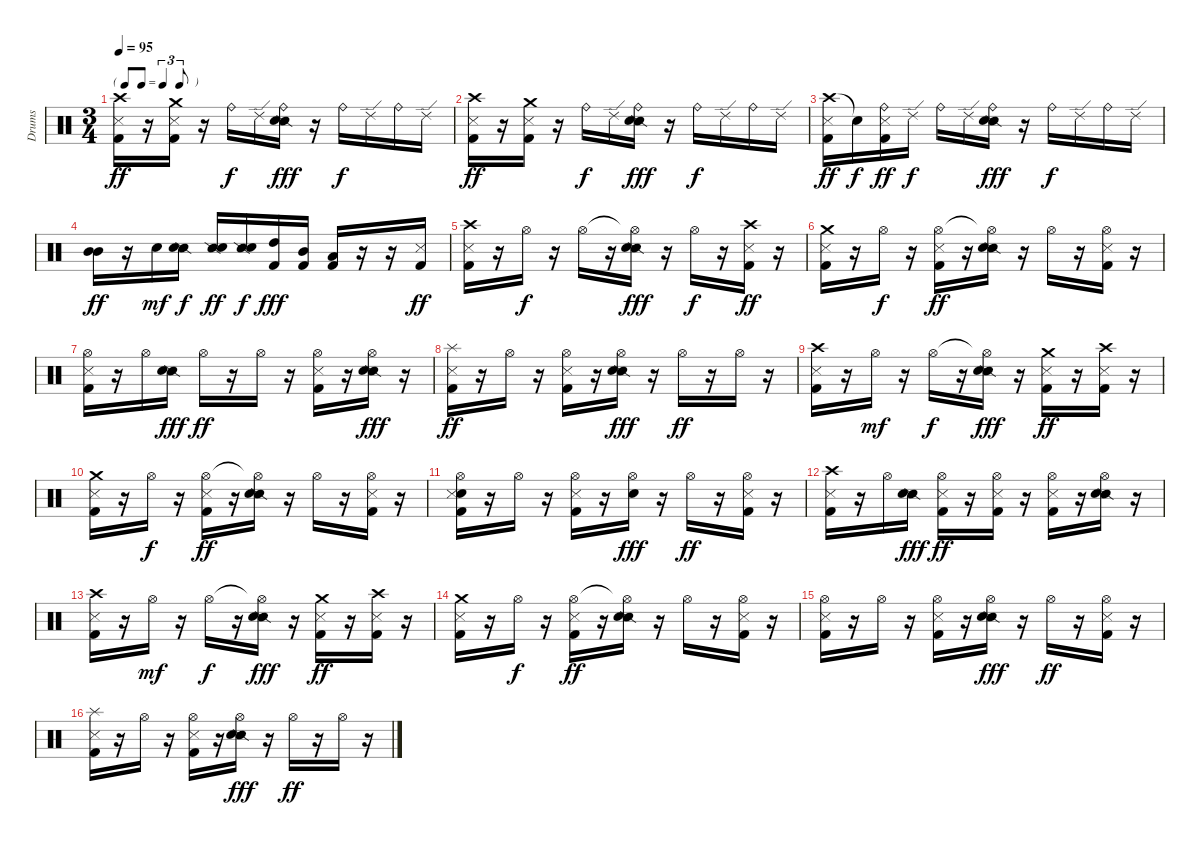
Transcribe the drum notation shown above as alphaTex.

\track ("Drums" "Drums") {instrument percussion}
\staff {score}
\articulation defaults
\ts (3 4)
\tf triplet8th
\tempo 95
\clef neutral
\ks c
("Crash high (hit)" "Metronome (hit)" "Kick (hit) 2").16{dy ff} r.16 ("Crash medium (hit)" "Metronome (hit)" "Kick (hit) 2").16 r.16 "Ride (bell)".16{dy f} "Ride (edge) 2".16 ("Ride (bell)" "Snare (side stick) 2" "Electric Snare (hit)").16{dy fff} r.16 "Ride (bell)".16{dy f} "Ride (edge) 2".16 "Ride (bell)".16 "Ride (edge) 2".16 |
("Crash high (hit)" "Metronome (hit)" "Kick (hit) 2").16{dy ff} r.16 ("Crash medium (hit)" "Metronome (hit)" "Kick (hit) 2").16 r.16 "Ride (bell)".16{dy f} "Ride (edge) 2".16 ("Ride (bell)" "Snare (side stick) 2" "Electric Snare (hit)").16{dy fff} r.16 "Ride (bell)".16{dy f} "Ride (edge) 2".16 "Ride (bell)".16 "Ride (edge) 2".16 |
("Crash high (hit)" "Metronome (hit)" "Kick (hit) 2").16{dy ff} "Snare (hit)"{t}.16{dy f} ("Ride (bell)" "Metronome (hit)" "Kick (hit) 2").16{dy ff} "Ride (edge) 2".16{dy f} "Ride (bell)".16 "Ride (edge) 2".16 ("Ride (bell)" "Snare (side stick) 2" "Electric Snare (hit)").16{dy fff} r.16 "Ride (bell)".16{dy f} "Ride (edge) 2".16 "Ride (bell)".16 "Ride (edge) 2".16 |
("Mid Tom (hit)" "Mid Tom (hit)").16{dy ff} r.16 "Electric Snare (hit)".16{dy mf} ("Snare (side stick) 2" "Electric Snare (hit)").16{dy f} ("Snare (side stick) 2" "Electric Snare (hit)").16{dy ff} ("Snare (side stick) 2" "Electric Snare (hit)").16{dy f} ("High Tom (hit)" "Kick (hit) 2").16{dy fff} ("Mid Tom (hit)" "Kick (hit) 2").16 ("Low Tom (hit)" "Kick (hit) 2").16 r.16 r.16 ("Metronome (hit)" "Kick (hit) 2").16{dy ff} |
("Crash high (hit)" "Metronome (hit)" "Kick (hit) 2").16 r.16 "Hi-Hat (open)".16{dy f} r.16 "Hi-Hat (open)".16 r.16 ("Hi-Hat (open)"{t} "Snare (side stick) 2" "Electric Snare (hit)").16{dy fff} r.16 "Hi-Hat (open)".16{dy f} r.16 ("Crash high (hit)" "Metronome (hit)" "Kick (hit) 2").16{dy ff} r.16 |
("Crash medium (hit)" "Metronome (hit)" "Kick (hit) 2").16 r.16 "Hi-Hat (open)".16{dy f} r.16 ("Hi-Hat (open)" "Metronome (hit)" "Kick (hit) 2").16{dy ff} r.16 ("Hi-Hat (open)"{t} "Snare (side stick) 2" "Electric Snare (hit)").16 r.16 "Hi-Hat (open)".16 r.16 ("Hi-Hat (open)" "Metronome (hit)" "Kick (hit) 2").16 r.16 |
("Hi-Hat (open)" "Metronome (hit)" "Kick (hit) 2").16 r.16 "Hi-Hat (open)".16 ("Snare (side stick) 2" "Electric Snare (hit)").16{dy fff} "Hi-Hat (open)".16{dy ff} r.16 "Hi-Hat (open)".16 r.16 ("Hi-Hat (open)" "Metronome (hit)" "Kick (hit) 2").16 r.16 ("Hi-Hat (open)" "Snare (side stick) 2" "Electric Snare (hit)").16{dy fff} r.16 |
("Splash (hit)" "Metronome (hit)" "Kick (hit) 2").16{dy ff} r.16 "Hi-Hat (open)".16 r.16 ("Hi-Hat (open)" "Metronome (hit)" "Kick (hit) 2").16 r.16 ("Hi-Hat (open)" "Snare (side stick) 2" "Electric Snare (hit)").16{dy fff} r.16 "Hi-Hat (open)".16{dy ff} r.16 "Hi-Hat (open)".16 r.16 |
("Crash high (hit)" "Metronome (hit)" "Kick (hit) 2").16 r.16 "Hi-Hat (open)".16{dy mf} r.16 "Hi-Hat (open)".16{dy f} r.16 ("Hi-Hat (open)"{t} "Snare (side stick) 2" "Electric Snare (hit)").16{dy fff} r.16 ("Crash medium (hit)" "Metronome (hit)" "Kick (hit) 2").16{dy ff} r.16 ("Crash high (hit)" "Metronome (hit)" "Kick (hit) 2").16 r.16 |
("Crash medium (hit)" "Metronome (hit)" "Kick (hit) 2").16 r.16 "Hi-Hat (open)".16{dy f} r.16 ("Hi-Hat (open)" "Metronome (hit)" "Kick (hit) 2").16{dy ff} r.16 ("Hi-Hat (open)"{t} "Snare (side stick) 2" "Electric Snare (hit)").16 r.16 "Hi-Hat (open)".16 r.16 ("Hi-Hat (open)" "Metronome (hit)" "Kick (hit) 2").16 r.16 |
("Hi-Hat (open)" "Electric Snare (hit)" "Metronome (hit)" "Kick (hit) 2").16 r.16 "Hi-Hat (open)".16 r.16 ("Hi-Hat (open)" "Metronome (hit)" "Kick (hit) 2").16 r.16 ("Hi-Hat (open)" "Electric Snare (hit)").16{dy fff} r.16 "Hi-Hat (open)".16{dy ff} r.16 ("Hi-Hat (open)" "Metronome (hit)" "Kick (hit) 2").16 r.16 |
("Crash high (hit)" "Metronome (hit)" "Kick (hit) 2").16 r.16 "Hi-Hat (open)".16 ("Snare (side stick) 2" "Electric Snare (hit)").16{dy fff} ("Hi-Hat (open)" "Metronome (hit)" "Kick (hit) 2").16{dy ff} r.16 ("Hi-Hat (open)" "Metronome (hit)" "Kick (hit) 2").16 r.16 ("Hi-Hat (open)" "Metronome (hit)" "Kick (hit) 2").16 r.16 ("Hi-Hat (open)" "Snare (side stick) 2" "Electric Snare (hit)").16 r.16 |
("Crash high (hit)" "Metronome (hit)" "Kick (hit) 2").16 r.16 "Hi-Hat (open)".16{dy mf} r.16 "Hi-Hat (open)".16{dy f} r.16 ("Hi-Hat (open)"{t} "Snare (side stick) 2" "Electric Snare (hit)").16{dy fff} r.16 ("Crash medium (hit)" "Metronome (hit)" "Kick (hit) 2").16{dy ff} r.16 ("Crash high (hit)" "Metronome (hit)" "Kick (hit) 2").16 r.16 |
("Crash medium (hit)" "Metronome (hit)" "Kick (hit) 2").16 r.16 "Hi-Hat (open)".16{dy f} r.16 ("Hi-Hat (open)" "Metronome (hit)" "Kick (hit) 2").16{dy ff} r.16 ("Hi-Hat (open)"{t} "Snare (side stick) 2" "Electric Snare (hit)").16 r.16 "Hi-Hat (open)".16 r.16 ("Hi-Hat (open)" "Metronome (hit)" "Kick (hit) 2").16 r.16 |
("Hi-Hat (open)" "Metronome (hit)" "Kick (hit) 2").16 r.16 "Hi-Hat (open)".16 r.16 ("Hi-Hat (open)" "Metronome (hit)" "Kick (hit) 2").16 r.16 ("Hi-Hat (open)" "Snare (side stick) 2" "Electric Snare (hit)").16{dy fff} r.16 "Hi-Hat (open)".16{dy ff} r.16 ("Hi-Hat (open)" "Metronome (hit)" "Kick (hit) 2").16 r.16 |
("Splash (hit)" "Metronome (hit)" "Kick (hit) 2").16 r.16 "Hi-Hat (open)".16 r.16 ("Hi-Hat (open)" "Metronome (hit)" "Kick (hit) 2").16 r.16 ("Hi-Hat (open)" "Snare (side stick) 2" "Electric Snare (hit)").16{dy fff} r.16 "Hi-Hat (open)".16{dy ff} r.16 "Hi-Hat (open)".16 r.16
